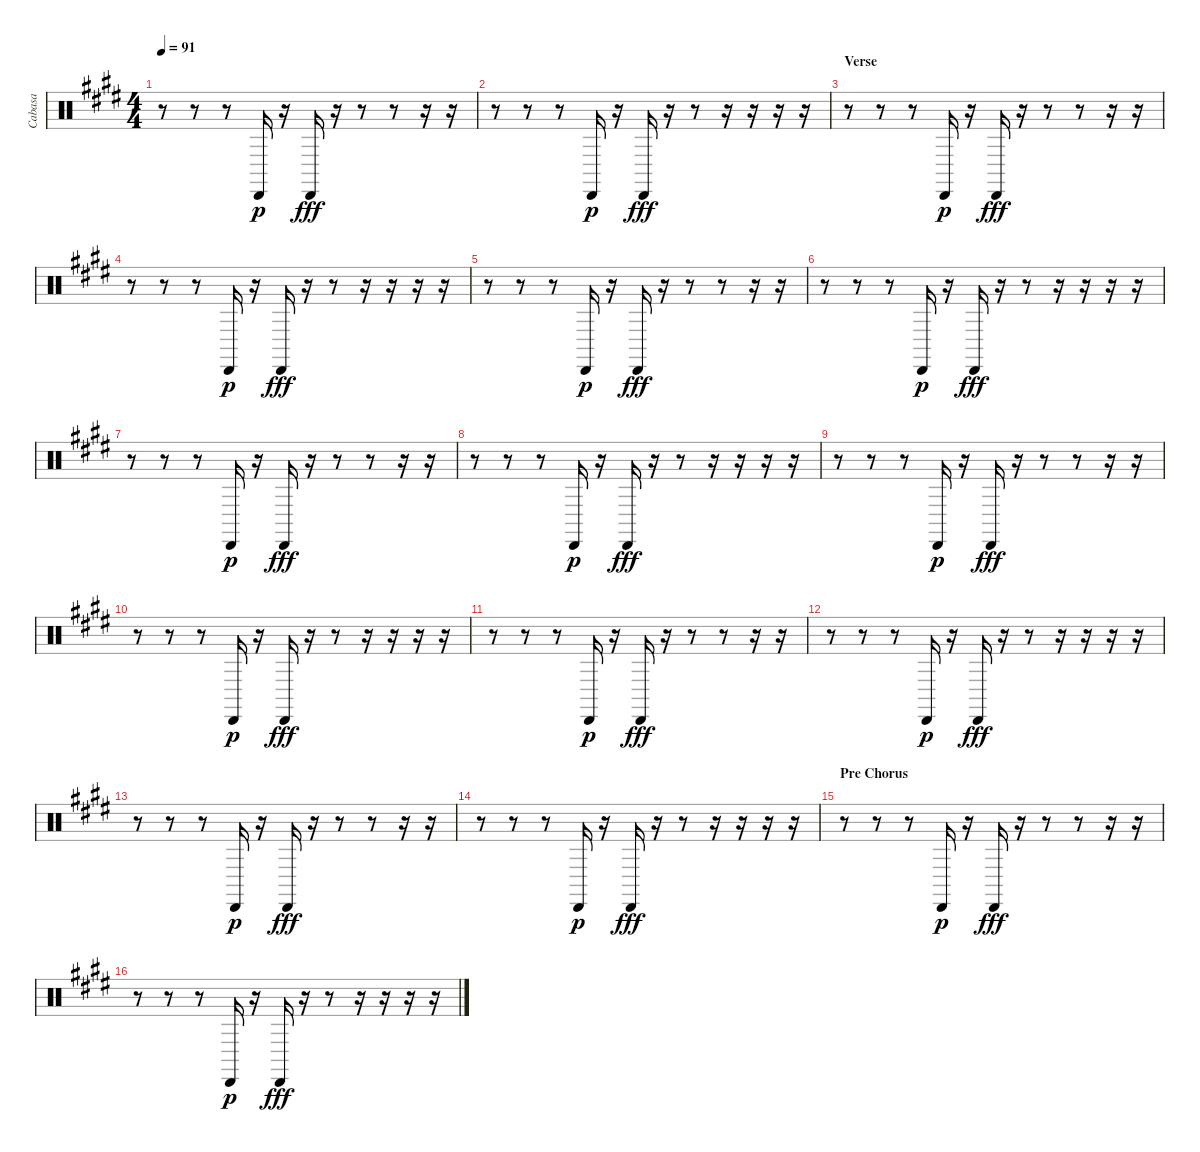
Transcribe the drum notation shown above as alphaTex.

\track ("Cabasa" "Cabasa") {instrument percussion}
\staff {score}
\articulation defaults
\ts (4 4)
\tempo 91
\clef neutral
\ks e
r.8{dy fff} r.8 r.8 "Cabasa (hit)".16{dy p} r.16 "Cabasa (hit)".16{dy fff} r.16 r.8 r.8 r.16 r.16 |
r.8 r.8 r.8 "Cabasa (hit)".16{dy p} r.16 "Cabasa (hit)".16{dy fff} r.16 r.8 r.16 r.16 r.16 r.16 |
\section ("" "Verse")
r.8 r.8 r.8 "Cabasa (hit)".16{dy p} r.16 "Cabasa (hit)".16{dy fff} r.16 r.8 r.8 r.16 r.16 |
r.8 r.8 r.8 "Cabasa (hit)".16{dy p} r.16 "Cabasa (hit)".16{dy fff} r.16 r.8 r.16 r.16 r.16 r.16 |
r.8 r.8 r.8 "Cabasa (hit)".16{dy p} r.16 "Cabasa (hit)".16{dy fff} r.16 r.8 r.8 r.16 r.16 |
r.8 r.8 r.8 "Cabasa (hit)".16{dy p} r.16 "Cabasa (hit)".16{dy fff} r.16 r.8 r.16 r.16 r.16 r.16 |
r.8 r.8 r.8 "Cabasa (hit)".16{dy p} r.16 "Cabasa (hit)".16{dy fff} r.16 r.8 r.8 r.16 r.16 |
r.8 r.8 r.8 "Cabasa (hit)".16{dy p} r.16 "Cabasa (hit)".16{dy fff} r.16 r.8 r.16 r.16 r.16 r.16 |
r.8 r.8 r.8 "Cabasa (hit)".16{dy p} r.16 "Cabasa (hit)".16{dy fff} r.16 r.8 r.8 r.16 r.16 |
r.8 r.8 r.8 "Cabasa (hit)".16{dy p} r.16 "Cabasa (hit)".16{dy fff} r.16 r.8 r.16 r.16 r.16 r.16 |
r.8 r.8 r.8 "Cabasa (hit)".16{dy p} r.16 "Cabasa (hit)".16{dy fff} r.16 r.8 r.8 r.16 r.16 |
r.8 r.8 r.8 "Cabasa (hit)".16{dy p} r.16 "Cabasa (hit)".16{dy fff} r.16 r.8 r.16 r.16 r.16 r.16 |
r.8 r.8 r.8 "Cabasa (hit)".16{dy p} r.16 "Cabasa (hit)".16{dy fff} r.16 r.8 r.8 r.16 r.16 |
r.8 r.8 r.8 "Cabasa (hit)".16{dy p} r.16 "Cabasa (hit)".16{dy fff} r.16 r.8 r.16 r.16 r.16 r.16 |
\section ("" "Pre Chorus")
r.8 r.8 r.8 "Cabasa (hit)".16{dy p} r.16 "Cabasa (hit)".16{dy fff} r.16 r.8 r.8 r.16 r.16 |
r.8 r.8 r.8 "Cabasa (hit)".16{dy p} r.16 "Cabasa (hit)".16{dy fff} r.16 r.8 r.16 r.16 r.16 r.16
